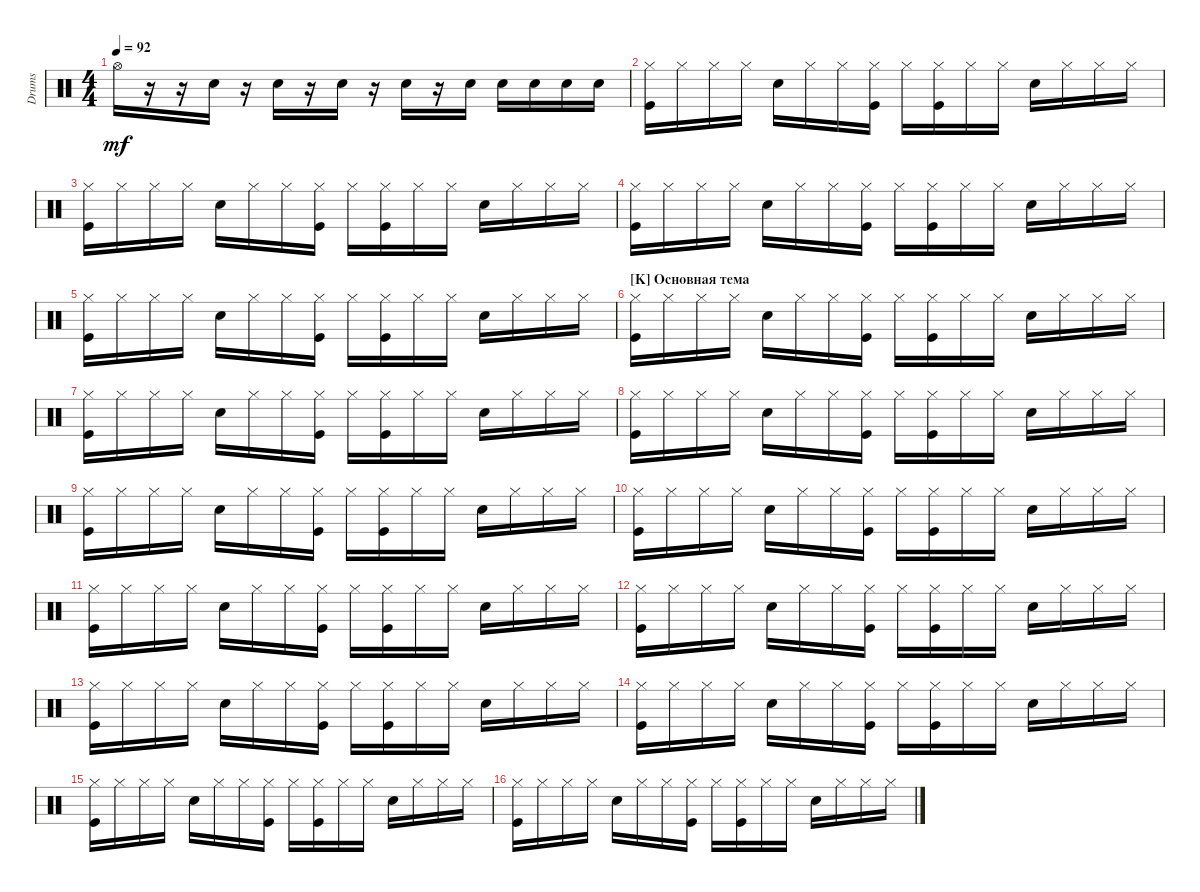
\track ("Drumkit" "Drums") {instrument percussion}
\staff {score}
\articulation defaults
\ts (4 4)
\tempo 92
\clef neutral
\ks c "Hi-Hat (open)".16{dy mf}
r.16 r.16 "Snare (hit) 2".16 r.16 "Snare (hit) 2".16 r.16 "Snare (hit) 2".16 r.16 "Snare (hit) 2".16 r.16 "Snare (hit) 2".16 "Snare (hit) 2".16 "Snare (hit) 2".16 "Snare (hit) 2".16 "Snare (hit) 2".16 |
("Kick (hit)" "Hi-Hat (closed)").16 "Hi-Hat (closed)".16 "Hi-Hat (closed)".16 "Hi-Hat (closed)".16 "Snare (hit) 2".16 "Hi-Hat (closed)".16 "Hi-Hat (closed)".16 ("Hi-Hat (closed)" "Kick (hit)").16 "Hi-Hat (closed)".16 ("Hi-Hat (closed)" "Kick (hit)").16 "Hi-Hat (closed)".16 "Hi-Hat (closed)".16 "Snare (hit) 2".16 "Hi-Hat (closed)".16 "Hi-Hat (closed)".16 "Hi-Hat (closed)".16 |
("Kick (hit)" "Hi-Hat (closed)").16 "Hi-Hat (closed)".16 "Hi-Hat (closed)".16 "Hi-Hat (closed)".16 "Snare (hit) 2".16 "Hi-Hat (closed)".16 "Hi-Hat (closed)".16 ("Hi-Hat (closed)" "Kick (hit)").16 "Hi-Hat (closed)".16 ("Hi-Hat (closed)" "Kick (hit)").16 "Hi-Hat (closed)".16 "Hi-Hat (closed)".16 "Snare (hit) 2".16 "Hi-Hat (closed)".16 "Hi-Hat (closed)".16 "Hi-Hat (closed)".16 |
("Kick (hit)" "Hi-Hat (closed)").16 "Hi-Hat (closed)".16 "Hi-Hat (closed)".16 "Hi-Hat (closed)".16 "Snare (hit) 2".16 "Hi-Hat (closed)".16 "Hi-Hat (closed)".16 ("Hi-Hat (closed)" "Kick (hit)").16 "Hi-Hat (closed)".16 ("Hi-Hat (closed)" "Kick (hit)").16 "Hi-Hat (closed)".16 "Hi-Hat (closed)".16 "Snare (hit) 2".16 "Hi-Hat (closed)".16 "Hi-Hat (closed)".16 "Hi-Hat (closed)".16 |
("Kick (hit)" "Hi-Hat (closed)").16 "Hi-Hat (closed)".16 "Hi-Hat (closed)".16 "Hi-Hat (closed)".16 "Snare (hit) 2".16 "Hi-Hat (closed)".16 "Hi-Hat (closed)".16 ("Hi-Hat (closed)" "Kick (hit)").16 "Hi-Hat (closed)".16 ("Hi-Hat (closed)" "Kick (hit)").16 "Hi-Hat (closed)".16 "Hi-Hat (closed)".16 "Snare (hit) 2".16 "Hi-Hat (closed)".16 "Hi-Hat (closed)".16 "Hi-Hat (closed)".16 |
\section ("K" "Основная тема")
("Kick (hit)" "Hi-Hat (closed)").16 "Hi-Hat (closed)".16 "Hi-Hat (closed)".16 "Hi-Hat (closed)".16 "Snare (hit) 2".16 "Hi-Hat (closed)".16 "Hi-Hat (closed)".16 ("Hi-Hat (closed)" "Kick (hit)").16 "Hi-Hat (closed)".16 ("Hi-Hat (closed)" "Kick (hit)").16 "Hi-Hat (closed)".16 "Hi-Hat (closed)".16 "Snare (hit) 2".16 "Hi-Hat (closed)".16 "Hi-Hat (closed)".16 "Hi-Hat (closed)".16 |
("Kick (hit)" "Hi-Hat (closed)").16 "Hi-Hat (closed)".16 "Hi-Hat (closed)".16 "Hi-Hat (closed)".16 "Snare (hit) 2".16 "Hi-Hat (closed)".16 "Hi-Hat (closed)".16 ("Hi-Hat (closed)" "Kick (hit)").16 "Hi-Hat (closed)".16 ("Hi-Hat (closed)" "Kick (hit)").16 "Hi-Hat (closed)".16 "Hi-Hat (closed)".16 "Snare (hit) 2".16 "Hi-Hat (closed)".16 "Hi-Hat (closed)".16 "Hi-Hat (closed)".16 |
("Kick (hit)" "Hi-Hat (closed)").16 "Hi-Hat (closed)".16 "Hi-Hat (closed)".16 "Hi-Hat (closed)".16 "Snare (hit) 2".16 "Hi-Hat (closed)".16 "Hi-Hat (closed)".16 ("Hi-Hat (closed)" "Kick (hit)").16 "Hi-Hat (closed)".16 ("Hi-Hat (closed)" "Kick (hit)").16 "Hi-Hat (closed)".16 "Hi-Hat (closed)".16 "Snare (hit) 2".16 "Hi-Hat (closed)".16 "Hi-Hat (closed)".16 "Hi-Hat (closed)".16 |
("Kick (hit)" "Hi-Hat (closed)").16 "Hi-Hat (closed)".16 "Hi-Hat (closed)".16 "Hi-Hat (closed)".16 "Snare (hit) 2".16 "Hi-Hat (closed)".16 "Hi-Hat (closed)".16 ("Hi-Hat (closed)" "Kick (hit)").16 "Hi-Hat (closed)".16 ("Hi-Hat (closed)" "Kick (hit)").16 "Hi-Hat (closed)".16 "Hi-Hat (closed)".16 "Snare (hit) 2".16 "Hi-Hat (closed)".16 "Hi-Hat (closed)".16 "Hi-Hat (closed)".16 |
("Kick (hit)" "Hi-Hat (closed)").16 "Hi-Hat (closed)".16 "Hi-Hat (closed)".16 "Hi-Hat (closed)".16 "Snare (hit) 2".16 "Hi-Hat (closed)".16 "Hi-Hat (closed)".16 ("Hi-Hat (closed)" "Kick (hit)").16 "Hi-Hat (closed)".16 ("Hi-Hat (closed)" "Kick (hit)").16 "Hi-Hat (closed)".16 "Hi-Hat (closed)".16 "Snare (hit) 2".16 "Hi-Hat (closed)".16 "Hi-Hat (closed)".16 "Hi-Hat (closed)".16 |
("Kick (hit)" "Hi-Hat (closed)").16 "Hi-Hat (closed)".16 "Hi-Hat (closed)".16 "Hi-Hat (closed)".16 "Snare (hit) 2".16 "Hi-Hat (closed)".16 "Hi-Hat (closed)".16 ("Hi-Hat (closed)" "Kick (hit)").16 "Hi-Hat (closed)".16 ("Hi-Hat (closed)" "Kick (hit)").16 "Hi-Hat (closed)".16 "Hi-Hat (closed)".16 "Snare (hit) 2".16 "Hi-Hat (closed)".16 "Hi-Hat (closed)".16 "Hi-Hat (closed)".16 |
("Kick (hit)" "Hi-Hat (closed)").16 "Hi-Hat (closed)".16 "Hi-Hat (closed)".16 "Hi-Hat (closed)".16 "Snare (hit) 2".16 "Hi-Hat (closed)".16 "Hi-Hat (closed)".16 ("Hi-Hat (closed)" "Kick (hit)").16 "Hi-Hat (closed)".16 ("Hi-Hat (closed)" "Kick (hit)").16 "Hi-Hat (closed)".16 "Hi-Hat (closed)".16 "Snare (hit) 2".16 "Hi-Hat (closed)".16 "Hi-Hat (closed)".16 "Hi-Hat (closed)".16 |
("Kick (hit)" "Hi-Hat (closed)").16 "Hi-Hat (closed)".16 "Hi-Hat (closed)".16 "Hi-Hat (closed)".16 "Snare (hit) 2".16 "Hi-Hat (closed)".16 "Hi-Hat (closed)".16 ("Hi-Hat (closed)" "Kick (hit)").16 "Hi-Hat (closed)".16 ("Hi-Hat (closed)" "Kick (hit)").16 "Hi-Hat (closed)".16 "Hi-Hat (closed)".16 "Snare (hit) 2".16 "Hi-Hat (closed)".16 "Hi-Hat (closed)".16 "Hi-Hat (closed)".16 |
("Kick (hit)" "Hi-Hat (closed)").16 "Hi-Hat (closed)".16 "Hi-Hat (closed)".16 "Hi-Hat (closed)".16 "Snare (hit) 2".16 "Hi-Hat (closed)".16 "Hi-Hat (closed)".16 ("Hi-Hat (closed)" "Kick (hit)").16 "Hi-Hat (closed)".16 ("Hi-Hat (closed)" "Kick (hit)").16 "Hi-Hat (closed)".16 "Hi-Hat (closed)".16 "Snare (hit) 2".16 "Hi-Hat (closed)".16 "Hi-Hat (closed)".16 "Hi-Hat (closed)".16 |
("Kick (hit)" "Hi-Hat (closed)").16 "Hi-Hat (closed)".16 "Hi-Hat (closed)".16 "Hi-Hat (closed)".16 "Snare (hit) 2".16 "Hi-Hat (closed)".16 "Hi-Hat (closed)".16 ("Hi-Hat (closed)" "Kick (hit)").16 "Hi-Hat (closed)".16 ("Hi-Hat (closed)" "Kick (hit)").16 "Hi-Hat (closed)".16 "Hi-Hat (closed)".16 "Snare (hit) 2".16 "Hi-Hat (closed)".16 "Hi-Hat (closed)".16 "Hi-Hat (closed)".16 |
("Kick (hit)" "Hi-Hat (closed)").16 "Hi-Hat (closed)".16 "Hi-Hat (closed)".16 "Hi-Hat (closed)".16 "Snare (hit) 2".16 "Hi-Hat (closed)".16 "Hi-Hat (closed)".16 ("Hi-Hat (closed)" "Kick (hit)").16 "Hi-Hat (closed)".16 ("Hi-Hat (closed)" "Kick (hit)").16 "Hi-Hat (closed)".16 "Hi-Hat (closed)".16 "Snare (hit) 2".16 "Hi-Hat (closed)".16 "Hi-Hat (closed)".16 "Hi-Hat (closed)".16
